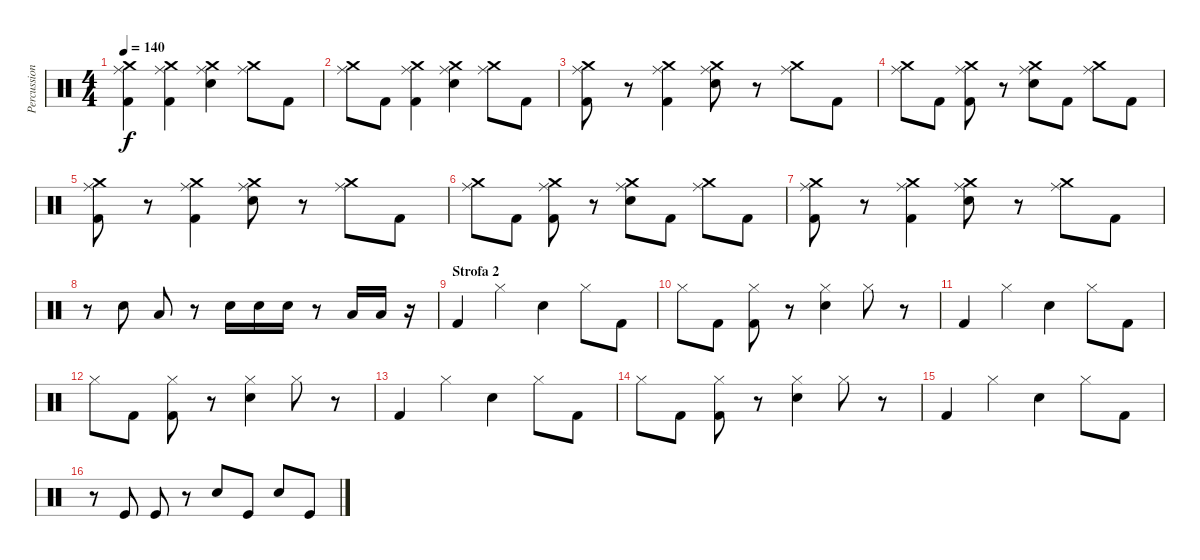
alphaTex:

\track ("Percussion" "Percussion") {instrument percussion}
\staff {score}
\articulation defaults
\ts (4 4)
\tempo 140
\clef neutral
\ks c
("Kick (hit) 2" "Ride (middle)" "Crash medium (hit)").4{dy f} ("Kick (hit) 2" "Ride (middle)" "Crash medium (hit)").4 ("Snare (hit) 2" "Ride (middle)" "Crash medium (hit)").4 ("Ride (middle)" "Crash medium (hit)").8 "Kick (hit) 2".8 |
("Ride (middle)" "Crash medium (hit)").8 "Kick (hit) 2".8 ("Kick (hit) 2" "Ride (middle)" "Crash medium (hit)").4 ("Snare (hit) 2" "Ride (middle)" "Crash medium (hit)").4 ("Ride (middle)" "Crash medium (hit)").8 "Kick (hit) 2".8 |
("Kick (hit) 2" "Ride (middle)" "Crash medium (hit)").8 r.8 ("Kick (hit) 2" "Ride (middle)" "Crash medium (hit)").4 ("Snare (hit) 2" "Ride (middle)" "Crash medium (hit)").8 r.8 ("Ride (middle)" "Crash medium (hit)").8 "Kick (hit) 2".8 |
("Ride (middle)" "Crash medium (hit)").8 "Kick (hit) 2".8 ("Kick (hit) 2" "Ride (middle)" "Crash medium (hit)").8 r.8 ("Snare (hit) 2" "Ride (middle)" "Crash medium (hit)").8 "Kick (hit) 2".8 ("Ride (middle)" "Crash medium (hit)").8 "Kick (hit) 2".8 |
("Kick (hit) 2" "Ride (middle)" "Crash medium (hit)").8 r.8 ("Kick (hit) 2" "Ride (middle)" "Crash medium (hit)").4 ("Snare (hit) 2" "Ride (middle)" "Crash medium (hit)").8 r.8 ("Ride (middle)" "Crash medium (hit)").8 "Kick (hit) 2".8 |
("Ride (middle)" "Crash medium (hit)").8 "Kick (hit) 2".8 ("Kick (hit) 2" "Ride (middle)" "Crash medium (hit)").8 r.8 ("Snare (hit) 2" "Ride (middle)" "Crash medium (hit)").8 "Kick (hit) 2".8 ("Ride (middle)" "Crash medium (hit)").8 "Kick (hit) 2".8 |
("Kick (hit) 2" "Ride (middle)" "Crash medium (hit)").8 r.8 ("Kick (hit) 2" "Ride (middle)" "Crash medium (hit)").4 ("Snare (hit) 2" "Ride (middle)" "Crash medium (hit)").8 r.8 ("Ride (middle)" "Crash medium (hit)").8 "Kick (hit) 2".8 |
r.8 "Snare (hit) 2".8 "Low Floor Tom (hit)".8 r.8 "Snare (hit) 2".16 "Snare (hit) 2".16 "Snare (hit) 2".16 r.8 "Low Floor Tom (hit)".16 "Low Floor Tom (hit)".16 r.16 |
\section ("" "Strofa 2")
"Kick (hit) 2".4 "Hi-Hat (closed)".4 "Snare (hit) 2".4 "Hi-Hat (closed)".8 "Kick (hit) 2".8 |
"Hi-Hat (closed)".8 "Kick (hit) 2".8 ("Kick (hit) 2" "Hi-Hat (closed)").8 r.8 ("Snare (hit) 2" "Hi-Hat (closed)").4 "Hi-Hat (closed)".8 r.8 |
"Kick (hit) 2".4 "Hi-Hat (closed)".4 "Snare (hit) 2".4 "Hi-Hat (closed)".8 "Kick (hit) 2".8 |
"Hi-Hat (closed)".8 "Kick (hit) 2".8 ("Kick (hit) 2" "Hi-Hat (closed)").8 r.8 ("Snare (hit) 2" "Hi-Hat (closed)").4 "Hi-Hat (closed)".8 r.8 |
"Kick (hit) 2".4 "Hi-Hat (closed)".4 "Snare (hit) 2".4 "Hi-Hat (closed)".8 "Kick (hit) 2".8 |
"Hi-Hat (closed)".8 "Kick (hit) 2".8 ("Kick (hit) 2" "Hi-Hat (closed)").8 r.8 ("Snare (hit) 2" "Hi-Hat (closed)").4 "Hi-Hat (closed)".8 r.8 |
"Kick (hit) 2".4 "Hi-Hat (closed)".4 "Snare (hit) 2".4 "Hi-Hat (closed)".8 "Kick (hit) 2".8 |
r.8 "Kick (hit)".8 "Kick (hit)".8 r.8 "Snare (hit) 2".8 "Kick (hit)".8 "Snare (hit) 2".8 "Kick (hit)".8
